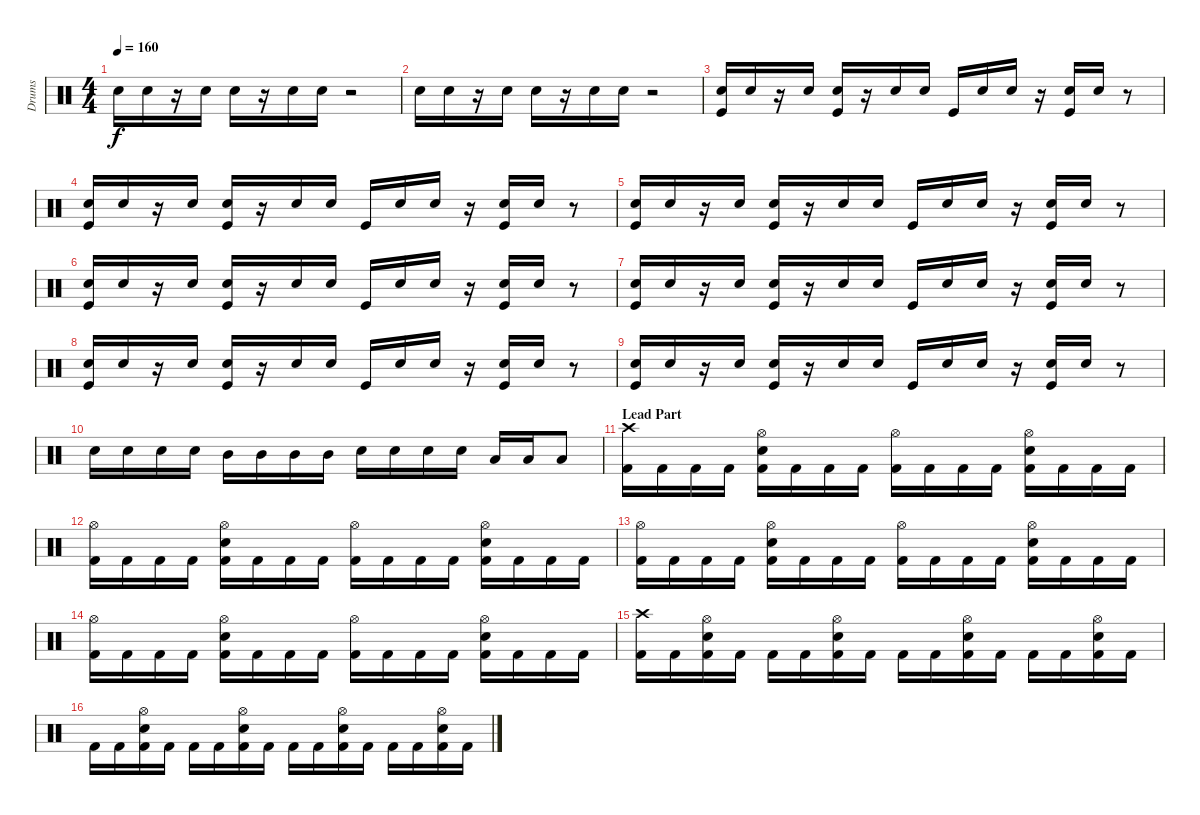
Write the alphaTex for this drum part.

\track ("Drums" "Drums") {instrument percussion}
\staff {score}
\articulation defaults
\ts (4 4)
\tempo 160
\clef neutral
\ks c "Electric Snare (hit)".16{dy f} "Electric Snare (hit)".16
r.16 "Electric Snare (hit)".16 "Electric Snare (hit)".16 r.16 "Electric Snare (hit)".16 "Electric Snare (hit)".16 r.2 |
"Electric Snare (hit)".16 "Electric Snare (hit)".16 r.16 "Electric Snare (hit)".16 "Electric Snare (hit)".16 r.16 "Electric Snare (hit)".16 "Electric Snare (hit)".16 r.2 |
("Electric Snare (hit)" "Kick (hit)").16 "Electric Snare (hit)".16 r.16 "Electric Snare (hit)".16 ("Electric Snare (hit)" "Kick (hit)").16 r.16 "Electric Snare (hit)".16 "Electric Snare (hit)".16 "Kick (hit)".16 "Electric Snare (hit)".16 "Electric Snare (hit)".16 r.16 ("Electric Snare (hit)" "Kick (hit)").16 "Electric Snare (hit)".16 r.8 |
("Electric Snare (hit)" "Kick (hit)").16 "Electric Snare (hit)".16 r.16 "Electric Snare (hit)".16 ("Electric Snare (hit)" "Kick (hit)").16 r.16 "Electric Snare (hit)".16 "Electric Snare (hit)".16 "Kick (hit)".16 "Electric Snare (hit)".16 "Electric Snare (hit)".16 r.16 ("Electric Snare (hit)" "Kick (hit)").16 "Electric Snare (hit)".16 r.8 |
("Electric Snare (hit)" "Kick (hit)").16 "Electric Snare (hit)".16 r.16 "Electric Snare (hit)".16 ("Electric Snare (hit)" "Kick (hit)").16 r.16 "Electric Snare (hit)".16 "Electric Snare (hit)".16 "Kick (hit)".16 "Electric Snare (hit)".16 "Electric Snare (hit)".16 r.16 ("Electric Snare (hit)" "Kick (hit)").16 "Electric Snare (hit)".16 r.8 |
("Electric Snare (hit)" "Kick (hit)").16 "Electric Snare (hit)".16 r.16 "Electric Snare (hit)".16 ("Electric Snare (hit)" "Kick (hit)").16 r.16 "Electric Snare (hit)".16 "Electric Snare (hit)".16 "Kick (hit)".16 "Electric Snare (hit)".16 "Electric Snare (hit)".16 r.16 ("Electric Snare (hit)" "Kick (hit)").16 "Electric Snare (hit)".16 r.8 |
("Electric Snare (hit)" "Kick (hit)").16 "Electric Snare (hit)".16 r.16 "Electric Snare (hit)".16 ("Electric Snare (hit)" "Kick (hit)").16 r.16 "Electric Snare (hit)".16 "Electric Snare (hit)".16 "Kick (hit)".16 "Electric Snare (hit)".16 "Electric Snare (hit)".16 r.16 ("Electric Snare (hit)" "Kick (hit)").16 "Electric Snare (hit)".16 r.8 |
("Electric Snare (hit)" "Kick (hit)").16 "Electric Snare (hit)".16 r.16 "Electric Snare (hit)".16 ("Electric Snare (hit)" "Kick (hit)").16 r.16 "Electric Snare (hit)".16 "Electric Snare (hit)".16 "Kick (hit)".16 "Electric Snare (hit)".16 "Electric Snare (hit)".16 r.16 ("Electric Snare (hit)" "Kick (hit)").16 "Electric Snare (hit)".16 r.8 |
("Electric Snare (hit)" "Kick (hit)").16 "Electric Snare (hit)".16 r.16 "Electric Snare (hit)".16 ("Electric Snare (hit)" "Kick (hit)").16 r.16 "Electric Snare (hit)".16 "Electric Snare (hit)".16 "Kick (hit)".16 "Electric Snare (hit)".16 "Electric Snare (hit)".16 r.16 ("Electric Snare (hit)" "Kick (hit)").16 "Electric Snare (hit)".16 r.8 |
"Electric Snare (hit)".16 "Electric Snare (hit)".16 "Electric Snare (hit)".16 "Electric Snare (hit)".16 "Mid Tom (hit)".16 "Mid Tom (hit)".16 "Mid Tom (hit)".16 "Mid Tom (hit)".16 "Electric Snare (hit)".16 "Electric Snare (hit)".16 "Electric Snare (hit)".16 "Electric Snare (hit)".16 "Low Tom (hit)".16 "Low Tom (hit)".16 "Low Tom (hit)".8 |
\section ("" "Lead Part")
("Crash high (hit)" "Kick (hit) 2").16 "Kick (hit) 2".16 "Kick (hit) 2".16 "Kick (hit) 2".16 ("Hi-Hat (open)" "Electric Snare (hit)" "Kick (hit) 2").16 "Kick (hit) 2".16 "Kick (hit) 2".16 "Kick (hit) 2".16 ("Hi-Hat (open)" "Kick (hit) 2").16 "Kick (hit) 2".16 "Kick (hit) 2".16 "Kick (hit) 2".16 ("Hi-Hat (open)" "Electric Snare (hit)" "Kick (hit) 2").16 "Kick (hit) 2".16 "Kick (hit) 2".16 "Kick (hit) 2".16 |
("Hi-Hat (open)" "Kick (hit) 2").16 "Kick (hit) 2".16 "Kick (hit) 2".16 "Kick (hit) 2".16 ("Hi-Hat (open)" "Electric Snare (hit)" "Kick (hit) 2").16 "Kick (hit) 2".16 "Kick (hit) 2".16 "Kick (hit) 2".16 ("Hi-Hat (open)" "Kick (hit) 2").16 "Kick (hit) 2".16 "Kick (hit) 2".16 "Kick (hit) 2".16 ("Hi-Hat (open)" "Electric Snare (hit)" "Kick (hit) 2").16 "Kick (hit) 2".16 "Kick (hit) 2".16 "Kick (hit) 2".16 |
("Hi-Hat (open)" "Kick (hit) 2").16 "Kick (hit) 2".16 "Kick (hit) 2".16 "Kick (hit) 2".16 ("Hi-Hat (open)" "Electric Snare (hit)" "Kick (hit) 2").16 "Kick (hit) 2".16 "Kick (hit) 2".16 "Kick (hit) 2".16 ("Hi-Hat (open)" "Kick (hit) 2").16 "Kick (hit) 2".16 "Kick (hit) 2".16 "Kick (hit) 2".16 ("Hi-Hat (open)" "Electric Snare (hit)" "Kick (hit) 2").16 "Kick (hit) 2".16 "Kick (hit) 2".16 "Kick (hit) 2".16 |
("Hi-Hat (open)" "Kick (hit) 2").16 "Kick (hit) 2".16 "Kick (hit) 2".16 "Kick (hit) 2".16 ("Hi-Hat (open)" "Electric Snare (hit)" "Kick (hit) 2").16 "Kick (hit) 2".16 "Kick (hit) 2".16 "Kick (hit) 2".16 ("Hi-Hat (open)" "Kick (hit) 2").16 "Kick (hit) 2".16 "Kick (hit) 2".16 "Kick (hit) 2".16 ("Hi-Hat (open)" "Electric Snare (hit)" "Kick (hit) 2").16 "Kick (hit) 2".16 "Kick (hit) 2".16 "Kick (hit) 2".16 |
("Crash high (hit)" "Kick (hit) 2").16 "Kick (hit) 2".16 ("Hi-Hat (open)" "Electric Snare (hit)" "Kick (hit) 2").16 "Kick (hit) 2".16 "Kick (hit) 2".16 "Kick (hit) 2".16 ("Hi-Hat (open)" "Electric Snare (hit)" "Kick (hit) 2").16 "Kick (hit) 2".16 "Kick (hit) 2".16 "Kick (hit) 2".16 ("Hi-Hat (open)" "Electric Snare (hit)" "Kick (hit) 2").16 "Kick (hit) 2".16 "Kick (hit) 2".16 "Kick (hit) 2".16 ("Hi-Hat (open)" "Electric Snare (hit)" "Kick (hit) 2").16 "Kick (hit) 2".16 |
"Kick (hit) 2".16 "Kick (hit) 2".16 ("Hi-Hat (open)" "Electric Snare (hit)" "Kick (hit) 2").16 "Kick (hit) 2".16 "Kick (hit) 2".16 "Kick (hit) 2".16 ("Hi-Hat (open)" "Electric Snare (hit)" "Kick (hit) 2").16 "Kick (hit) 2".16 "Kick (hit) 2".16 "Kick (hit) 2".16 ("Hi-Hat (open)" "Electric Snare (hit)" "Kick (hit) 2").16 "Kick (hit) 2".16 "Kick (hit) 2".16 "Kick (hit) 2".16 ("Hi-Hat (open)" "Electric Snare (hit)" "Kick (hit) 2").16 "Kick (hit) 2".16
